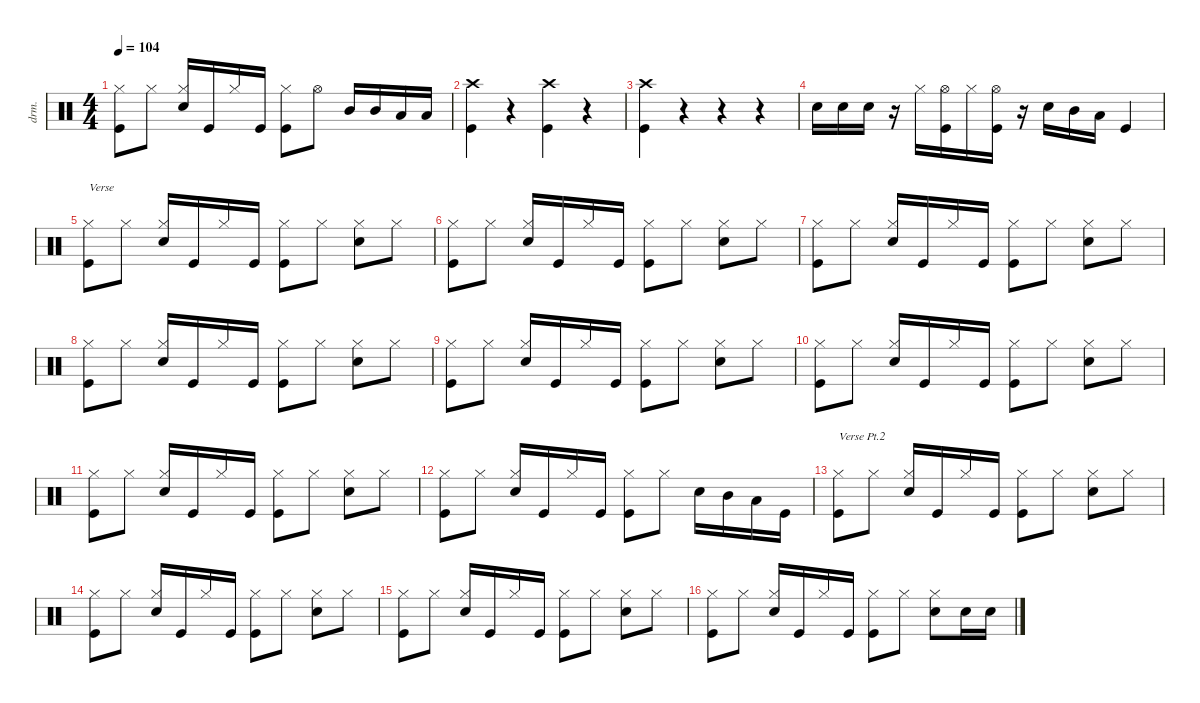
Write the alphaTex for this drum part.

\defaultSystemsLayout 4
\hideDynamics
\bracketExtendMode nobrackets
\otherSystemsTrackNameOrientation horizontal
\track ("Drumkit" "drm.") {instrument percussion}
\staff {score}
\articulation defaults
\ts (4 4)
\tempo 104
\clef neutral
\ks c
("Kick (hit)" "Hi-Hat (closed)").8{dy mf beam Down} "Hi-Hat (closed)".8{beam Down} ("Hi-Hat (closed)" "Snare (hit) 2").16{beam Up} "Kick (hit)".16{beam Up} "Hi-Hat (closed)".16{beam Up} "Kick (hit)".16{beam Up} ("Hi-Hat (closed)" "Kick (hit)").8{beam Down} "Hi-Hat (open)".8{beam Down} "Mid Tom (hit)".16{beam Up} "Mid Tom (hit)".16{beam Up} "Low Tom (hit)".16{beam Up} "Low Tom (hit)".16{beam Up} |
("Crash high (hit)" "Kick (hit)").4{beam Down} r.4{beam Down} ("Crash high (hit)" "Kick (hit)").4{beam Down} r.4{beam Down} |
("Crash high (hit)" "Kick (hit)").4{beam Down} r.4{beam Down} r.4{beam Down} r.4{beam Down} |
"Snare (hit) 2".16{beam Down} "Snare (hit) 2".16{beam Down} "Snare (hit) 2".16{beam Down} r.16{beam Down} "Hi-Hat (closed)".16{beam Down} ("Hi-Hat (open)" "Kick (hit)").16{beam Down} "Hi-Hat (closed)".16{beam Down} ("Hi-Hat (open)" "Kick (hit)").16{beam Down} r.16{beam Down} "Snare (hit) 2".16{beam Down} "Mid Tom (hit)".16{beam Down} "Low Tom (hit)".16{beam Down} "Kick (hit)".4{beam Up} |
("Kick (hit)" "Hi-Hat (closed)").8{txt "Verse" beam Down} "Hi-Hat (closed)".8{beam Down} ("Hi-Hat (closed)" "Snare (hit) 2").16{beam Up} "Kick (hit)".16{beam Up} "Hi-Hat (closed)".16{beam Up} "Kick (hit)".16{beam Up} ("Hi-Hat (closed)" "Kick (hit)").8{beam Down} "Hi-Hat (closed)".8{beam Down} ("Hi-Hat (closed)" "Snare (hit) 2").8{beam Down} "Hi-Hat (closed)".8{beam Down} |
("Kick (hit)" "Hi-Hat (closed)").8{beam Down} "Hi-Hat (closed)".8{beam Down} ("Hi-Hat (closed)" "Snare (hit) 2").16{beam Up} "Kick (hit)".16{beam Up} "Hi-Hat (closed)".16{beam Up} "Kick (hit)".16{beam Up} ("Hi-Hat (closed)" "Kick (hit)").8{beam Down} "Hi-Hat (closed)".8{beam Down} ("Hi-Hat (closed)" "Snare (hit) 2").8{beam Down} "Hi-Hat (closed)".8{beam Down} |
("Kick (hit)" "Hi-Hat (closed)").8{beam Down} "Hi-Hat (closed)".8{beam Down} ("Hi-Hat (closed)" "Snare (hit) 2").16{beam Up} "Kick (hit)".16{beam Up} "Hi-Hat (closed)".16{beam Up} "Kick (hit)".16{beam Up} ("Hi-Hat (closed)" "Kick (hit)").8{beam Down} "Hi-Hat (closed)".8{beam Down} ("Hi-Hat (closed)" "Snare (hit) 2").8{beam Down} "Hi-Hat (closed)".8{beam Down} |
("Kick (hit)" "Hi-Hat (closed)").8{beam Down} "Hi-Hat (closed)".8{beam Down} ("Hi-Hat (closed)" "Snare (hit) 2").16{beam Up} "Kick (hit)".16{beam Up} "Hi-Hat (closed)".16{beam Up} "Kick (hit)".16{beam Up} ("Hi-Hat (closed)" "Kick (hit)").8{beam Down} "Hi-Hat (closed)".8{beam Down} ("Hi-Hat (closed)" "Snare (hit) 2").8{beam Down} "Hi-Hat (closed)".8{beam Down} |
("Kick (hit)" "Hi-Hat (closed)").8{beam Down} "Hi-Hat (closed)".8{beam Down} ("Hi-Hat (closed)" "Snare (hit) 2").16{beam Up} "Kick (hit)".16{beam Up} "Hi-Hat (closed)".16{beam Up} "Kick (hit)".16{beam Up} ("Hi-Hat (closed)" "Kick (hit)").8{beam Down} "Hi-Hat (closed)".8{beam Down} ("Hi-Hat (closed)" "Snare (hit) 2").8{beam Down} "Hi-Hat (closed)".8{beam Down} |
("Kick (hit)" "Hi-Hat (closed)").8{beam Down} "Hi-Hat (closed)".8{beam Down} ("Hi-Hat (closed)" "Snare (hit) 2").16{beam Up} "Kick (hit)".16{beam Up} "Hi-Hat (closed)".16{beam Up} "Kick (hit)".16{beam Up} ("Hi-Hat (closed)" "Kick (hit)").8{beam Down} "Hi-Hat (closed)".8{beam Down} ("Hi-Hat (closed)" "Snare (hit) 2").8{beam Down} "Hi-Hat (closed)".8{beam Down} |
("Kick (hit)" "Hi-Hat (closed)").8{beam Down} "Hi-Hat (closed)".8{beam Down} ("Hi-Hat (closed)" "Snare (hit) 2").16{beam Up} "Kick (hit)".16{beam Up} "Hi-Hat (closed)".16{beam Up} "Kick (hit)".16{beam Up} ("Hi-Hat (closed)" "Kick (hit)").8{beam Down} "Hi-Hat (closed)".8{beam Down} ("Hi-Hat (closed)" "Snare (hit) 2").8{beam Down} "Hi-Hat (closed)".8{beam Down} |
("Kick (hit)" "Hi-Hat (closed)").8{beam Down} "Hi-Hat (closed)".8{beam Down} ("Hi-Hat (closed)" "Snare (hit) 2").16{beam Up} "Kick (hit)".16{beam Up} "Hi-Hat (closed)".16{beam Up} "Kick (hit)".16{beam Up} ("Hi-Hat (closed)" "Kick (hit)").8{beam Down} "Hi-Hat (closed)".8{beam Down} "Snare (hit) 2".16{beam Down} "Mid Tom (hit)".16{beam Down} "Low Tom (hit)".16{beam Down} "Kick (hit)".16{beam Down} |
("Kick (hit)" "Hi-Hat (closed)").8{txt "Verse Pt.2" beam Down} "Hi-Hat (closed)".8{beam Down} ("Hi-Hat (closed)" "Snare (hit) 2").16{beam Up} "Kick (hit)".16{beam Up} "Hi-Hat (closed)".16{beam Up} "Kick (hit)".16{beam Up} ("Hi-Hat (closed)" "Kick (hit)").8{beam Down} "Hi-Hat (closed)".8{beam Down} ("Hi-Hat (closed)" "Snare (hit) 2").8{beam Down} "Hi-Hat (closed)".8{beam Down} |
("Kick (hit)" "Hi-Hat (closed)").8{beam Down} "Hi-Hat (closed)".8{beam Down} ("Hi-Hat (closed)" "Snare (hit) 2").16{beam Up} "Kick (hit)".16{beam Up} "Hi-Hat (closed)".16{beam Up} "Kick (hit)".16{beam Up} ("Hi-Hat (closed)" "Kick (hit)").8{beam Down} "Hi-Hat (closed)".8{beam Down} ("Hi-Hat (closed)" "Snare (hit) 2").8{beam Down} "Hi-Hat (closed)".8{beam Down} |
("Kick (hit)" "Hi-Hat (closed)").8{beam Down} "Hi-Hat (closed)".8{beam Down} ("Hi-Hat (closed)" "Snare (hit) 2").16{beam Up} "Kick (hit)".16{beam Up} "Hi-Hat (closed)".16{beam Up} "Kick (hit)".16{beam Up} ("Hi-Hat (closed)" "Kick (hit)").8{beam Down} "Hi-Hat (closed)".8{beam Down} ("Hi-Hat (closed)" "Snare (hit) 2").8{beam Down} "Hi-Hat (closed)".8{beam Down} |
("Kick (hit)" "Hi-Hat (closed)").8{beam Down} "Hi-Hat (closed)".8{beam Down} ("Hi-Hat (closed)" "Snare (hit) 2").16{beam Up} "Kick (hit)".16{beam Up} "Hi-Hat (closed)".16{beam Up} "Kick (hit)".16{beam Up} ("Hi-Hat (closed)" "Kick (hit)").8{beam Down} "Hi-Hat (closed)".8{beam Down} ("Hi-Hat (closed)" "Snare (hit) 2").8{beam Down} "Snare (hit) 2".16{beam Down} "Snare (hit) 2".16{beam Down}
